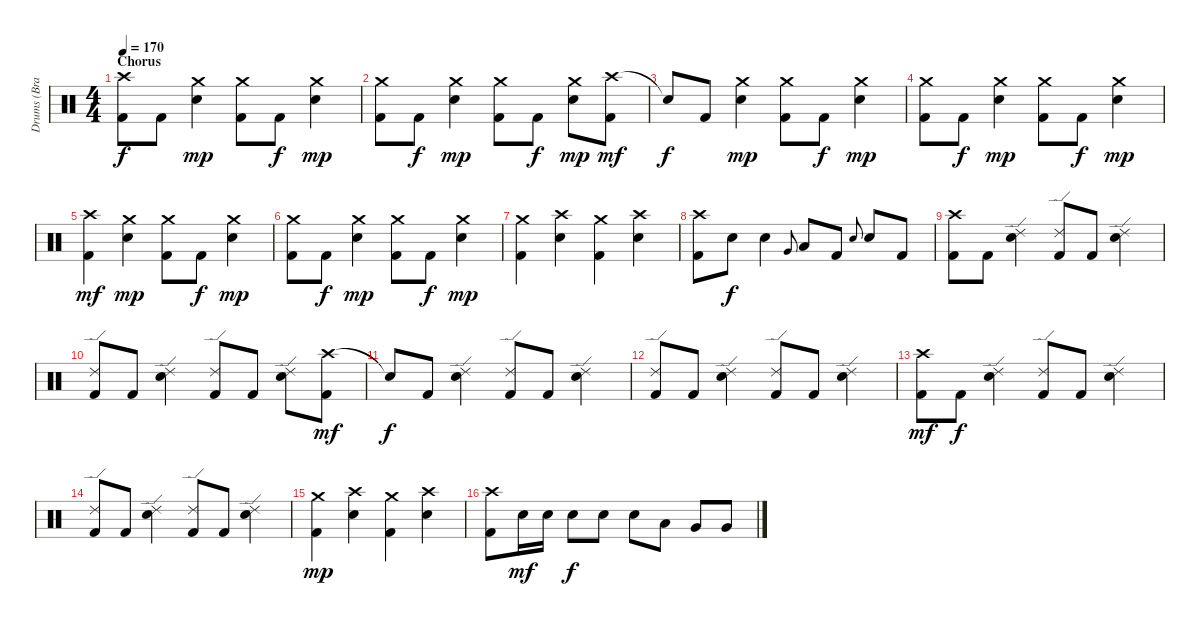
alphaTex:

\track ("Drums (Brandon Saller)" "Drums (Bra") {instrument percussion}
\staff {score}
\articulation defaults
\ts (4 4)
\section ("" "Chorus")
\tempo 170
\clef neutral
\ks c
("Crash high (hit)" "Kick (hit) 2").8{dy f} "Kick (hit) 2".8 ("Crash medium (hit)" "Electric Snare (hit)").4{dy mp} ("Crash medium (hit)" "Kick (hit) 2").8 "Kick (hit) 2".8{dy f} ("Crash medium (hit)" "Electric Snare (hit)").4{dy mp} |
("Crash medium (hit)" "Kick (hit) 2").8 "Kick (hit) 2".8{dy f} ("Crash medium (hit)" "Electric Snare (hit)").4{dy mp} ("Crash medium (hit)" "Kick (hit) 2").8 "Kick (hit) 2".8{dy f} ("Crash medium (hit)" "Electric Snare (hit)").8{dy mp} ("Crash high (hit)" "Kick (hit) 2").8{dy mf} |
"Snare (hit)"{t}.8{dy f} "Kick (hit) 2".8 ("Crash medium (hit)" "Electric Snare (hit)").4{dy mp} ("Crash medium (hit)" "Kick (hit) 2").8 "Kick (hit) 2".8{dy f} ("Crash medium (hit)" "Electric Snare (hit)").4{dy mp} |
("Crash medium (hit)" "Kick (hit) 2").8 "Kick (hit) 2".8{dy f} ("Crash medium (hit)" "Electric Snare (hit)").4{dy mp} ("Crash medium (hit)" "Kick (hit) 2").8 "Kick (hit) 2".8{dy f} ("Crash medium (hit)" "Electric Snare (hit)").4{dy mp} |
("Crash high (hit)" "Kick (hit) 2").4{dy mf} ("Crash medium (hit)" "Electric Snare (hit)").4{dy mp} ("Crash medium (hit)" "Kick (hit) 2").8 "Kick (hit) 2".8{dy f} ("Crash medium (hit)" "Electric Snare (hit)").4{dy mp} |
("Crash medium (hit)" "Kick (hit) 2").8 "Kick (hit) 2".8{dy f} ("Crash medium (hit)" "Electric Snare (hit)").4{dy mp} ("Crash medium (hit)" "Kick (hit) 2").8 "Kick (hit) 2".8{dy f} ("Crash medium (hit)" "Electric Snare (hit)").4{dy mp} |
("Crash medium (hit)" "Kick (hit) 2").4 ("Crash high (hit)" "Electric Snare (hit)").4 ("Crash medium (hit)" "Kick (hit) 2").4 ("Crash high (hit)" "Electric Snare (hit)").4 |
("Crash high (hit)" "Kick (hit) 2").8 "Electric Snare (hit)".8{dy f} "Electric Snare (hit)".4 "Very Low Tom (hit)".8{gr onbeat} "Low Tom (hit)".8 "Kick (hit) 2".8 "Electric Snare (hit)".8{gr onbeat} "Electric Snare (hit)".8 "Kick (hit) 2".8 |
("Crash high (hit)" "Kick (hit) 2").8 "Kick (hit) 2".8 ("Ride (edge) 2" "Electric Snare (hit)").4 ("Ride (edge) 2" "Kick (hit) 2").8 "Kick (hit) 2".8 ("Ride (edge) 2" "Electric Snare (hit)").4 |
("Ride (edge) 2" "Kick (hit) 2").8 "Kick (hit) 2".8 ("Ride (edge) 2" "Electric Snare (hit)").4 ("Ride (edge) 2" "Kick (hit) 2").8 "Kick (hit) 2".8 ("Ride (edge) 2" "Electric Snare (hit)").8 ("Crash high (hit)" "Kick (hit) 2").8{dy mf} |
"Snare (hit)"{t}.8{dy f} "Kick (hit) 2".8 ("Ride (edge) 2" "Electric Snare (hit)").4 ("Ride (edge) 2" "Kick (hit) 2").8 "Kick (hit) 2".8 ("Ride (edge) 2" "Electric Snare (hit)").4 |
("Ride (edge) 2" "Kick (hit) 2").8 "Kick (hit) 2".8 ("Ride (edge) 2" "Electric Snare (hit)").4 ("Ride (edge) 2" "Kick (hit) 2").8 "Kick (hit) 2".8 ("Ride (edge) 2" "Electric Snare (hit)").4 |
("Crash high (hit)" "Kick (hit) 2").8{dy mf} "Kick (hit) 2".8{dy f} ("Ride (edge) 2" "Electric Snare (hit)").4 ("Ride (edge) 2" "Kick (hit) 2").8 "Kick (hit) 2".8 ("Ride (edge) 2" "Electric Snare (hit)").4 |
("Ride (edge) 2" "Kick (hit) 2").8 "Kick (hit) 2".8 ("Ride (edge) 2" "Electric Snare (hit)").4 ("Ride (edge) 2" "Kick (hit) 2").8 "Kick (hit) 2".8 ("Ride (edge) 2" "Electric Snare (hit)").4 |
("Crash medium (hit)" "Kick (hit) 2").4{dy mp} ("Crash high (hit)" "Electric Snare (hit)").4 ("Crash medium (hit)" "Kick (hit) 2").4 ("Crash high (hit)" "Electric Snare (hit)").4 |
("Crash high (hit)" "Kick (hit) 2").8 "Electric Snare (hit)".16{dy mf} "Electric Snare (hit)".16 "Electric Snare (hit)".8{dy f} "Electric Snare (hit)".8 "Electric Snare (hit)".8 "Low Tom (hit)".8 "Very Low Tom (hit)".8 "Very Low Tom (hit)".8
